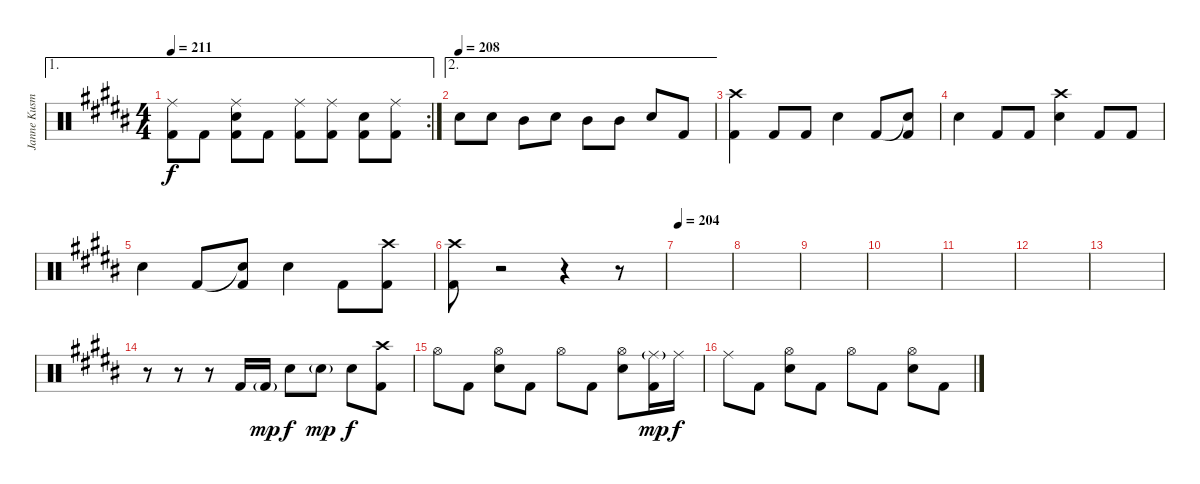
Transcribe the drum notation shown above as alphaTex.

\track ("Janne Kusmin" "Janne Kusm") {instrument percussion}
\staff {score}
\articulation defaults
\ae 1
\rc 2
\ts (4 4)
\tempo 211
\clef neutral
\ks b
("Ride (middle)" "Kick (hit) 2").8{dy f} "Kick (hit) 2".8 ("Ride (middle)" "Electric Snare (hit)" "Kick (hit) 2").8 "Kick (hit) 2".8 ("Ride (middle)" "Kick (hit) 2").8 ("Ride (middle)" "Kick (hit) 2").8 ("Electric Snare (hit)" "Kick (hit) 2").8 ("Ride (middle)" "Kick (hit) 2").8 |
\ae 2
\tempo 208
\ks g#minor "Electric Snare (hit)".8 "Electric Snare (hit)".8 "Mid Tom (hit)".8 "Electric Snare (hit)".8 "Mid Tom (hit)".8 "Mid Tom (hit)".8 "Electric Snare (hit)".8 "Kick (hit) 2".8
|
("Crash high (hit)" "Kick (hit) 2").4 "Kick (hit) 2".8 "Kick (hit) 2".8 "Electric Snare (hit)".4 "Kick (hit) 2".8 ("Snare (hit)"{t} "Kick (hit) 2").8 |
"Electric Snare (hit)".4 "Kick (hit) 2".8 "Kick (hit) 2".8 ("Crash high (hit)" "Electric Snare (hit)").4 "Kick (hit) 2".8 "Kick (hit) 2".8 |
"Electric Snare (hit)".4 "Kick (hit) 2".8 ("Snare (hit)"{t} "Kick (hit) 2").8 "Electric Snare (hit)".4 "Kick (hit) 2".8 ("Crash high (hit)" "Kick (hit) 2").8 |
\ks b
("Crash high (hit)" "Kick (hit) 2").8 r.2 r.4 r.8 |
\tempo 204
\ks g#minor
|
|
\ks b
|
\ks g#minor
|
|
|
\ks b
|
\ks g#minor
r.8 r.8 r.8 "Kick (hit) 2".16 "Kick (hit) 2"{g}.16{dy mp} "Electric Snare (hit)".8{dy f} "Electric Snare (hit)"{g}.8{dy mp} "Electric Snare (hit)".8{dy f} ("Crash high (hit)" "Kick (hit) 2").8 |
"Hi-Hat (open)".8 "Kick (hit) 2".8 ("Hi-Hat (open)" "Electric Snare (hit)").8 "Kick (hit) 2".8 "Hi-Hat (open)".8 "Kick (hit) 2".8 ("Hi-Hat (open)" "Electric Snare (hit)").8 ("Ride (middle)"{g} "Kick (hit) 2").16{dy mp} "Ride (middle)".16{dy f} |
"Ride (middle)".8 "Kick (hit) 2".8 ("Hi-Hat (open)" "Electric Snare (hit)").8 "Kick (hit) 2".8 "Hi-Hat (open)".8 "Kick (hit) 2".8 ("Hi-Hat (open)" "Electric Snare (hit)").8 "Kick (hit) 2".8
